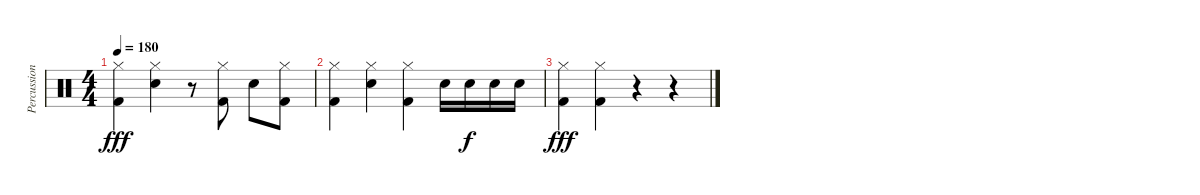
\track ("Percussion" "Percussion") {instrument percussion}
\staff {score}
\articulation defaults
\ts (4 4)
\tempo 180
\clef neutral
\ks c
("Hi-Hat (closed)" "Kick (hit) 2").4{dy fff} ("Hi-Hat (closed)" "Snare (hit) 2").4 r.8 ("Hi-Hat (closed)" "Kick (hit) 2").8 "Snare (hit) 2".8 ("Hi-Hat (closed)" "Kick (hit) 2").8 |
("Hi-Hat (closed)" "Kick (hit) 2").4 ("Hi-Hat (closed)" "Snare (hit) 2").4 ("Hi-Hat (closed)" "Kick (hit) 2").4 "Snare (hit) 2".16 "Snare (hit) 2".16{dy f} "Snare (hit) 2".16 "Snare (hit) 2".16 |
("Hi-Hat (closed)" "Kick (hit) 2").4{dy fff} ("Hi-Hat (closed)" "Kick (hit) 2").4 r.4 r.4
